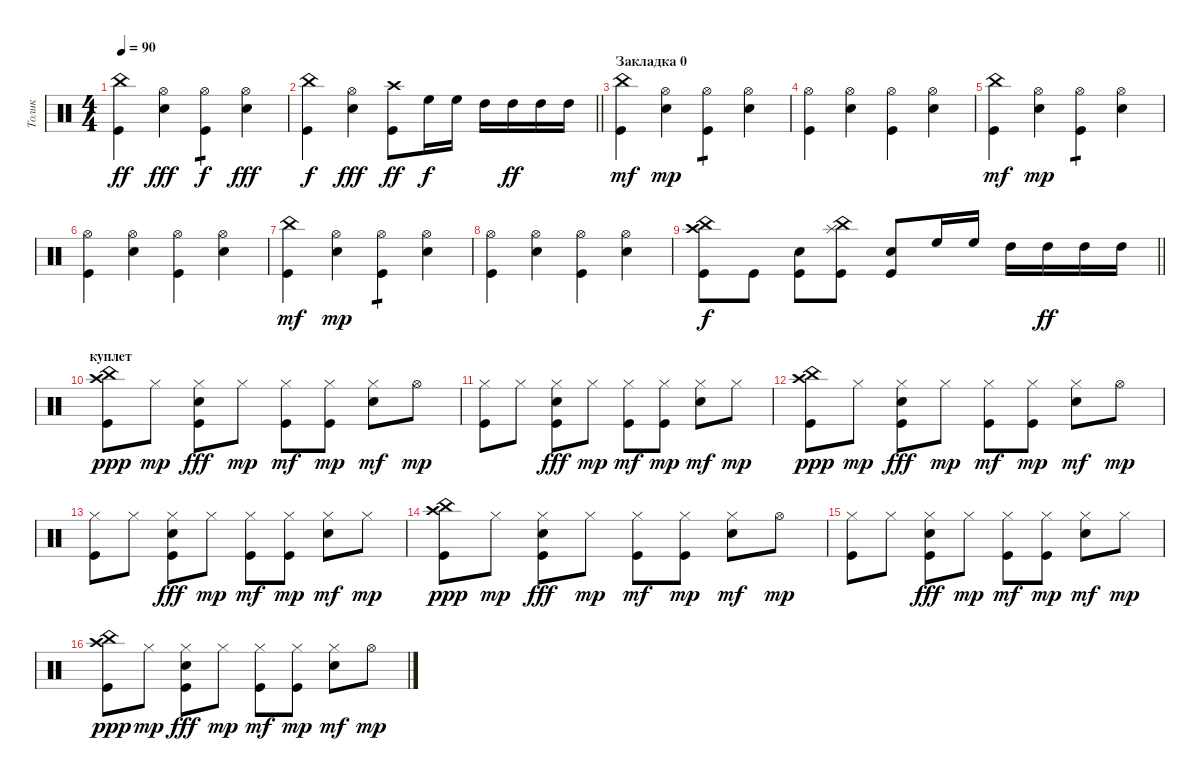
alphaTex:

\track ("Толик" "Толик") {instrument percussion}
\staff {score}
\articulation defaults
\ts (4 4)
\tempo 90
\clef neutral
\ks c
("China (hit)" "Kick (hit)").4{dy ff} ("Snare (hit) 2" "Hi-Hat (open)").4{dy fff} ("Kick (hit)" "Hi-Hat (open)").4{tp 1 dy f} ("Snare (hit) 2" "Hi-Hat (open)").4{dy fff} |
\barLineRight lightlight
("China (hit)" "Kick (hit)").4{dy f} ("Snare (hit) 2" "Hi-Hat (open)").4{dy fff} ("Kick (hit)" "Crash high (hit)").8{dy ff} "High Floor Tom (hit)".16{dy f} "High Floor Tom (hit)".16 "High Tom (hit)".16 "High Tom (hit)".16{dy ff} "High Tom (hit)".16 "High Tom (hit)".16 |
\section ("" "Закладка 0")
("China (hit)" "Kick (hit)").4{dy mf} ("Snare (hit) 2" "Hi-Hat (open)").4{dy mp} ("Kick (hit)" "Hi-Hat (open)").4{tp 1} ("Snare (hit) 2" "Hi-Hat (open)").4 |
("Kick (hit)" "Hi-Hat (open)").4 ("Snare (hit) 2" "Hi-Hat (open)").4 ("Kick (hit)" "Hi-Hat (open)").4 ("Snare (hit) 2" "Hi-Hat (open)").4 |
("China (hit)" "Kick (hit)").4{dy mf} ("Snare (hit) 2" "Hi-Hat (open)").4{dy mp} ("Kick (hit)" "Hi-Hat (open)").4{tp 1} ("Snare (hit) 2" "Hi-Hat (open)").4 |
("Kick (hit)" "Hi-Hat (open)").4 ("Snare (hit) 2" "Hi-Hat (open)").4 ("Kick (hit)" "Hi-Hat (open)").4 ("Snare (hit) 2" "Hi-Hat (open)").4 |
("China (hit)" "Kick (hit)").4{dy mf} ("Snare (hit) 2" "Hi-Hat (open)").4{dy mp} ("Kick (hit)" "Hi-Hat (open)").4{tp 1} ("Snare (hit) 2" "Hi-Hat (open)").4 |
("Kick (hit)" "Hi-Hat (open)").4 ("Snare (hit) 2" "Hi-Hat (open)").4 ("Kick (hit)" "Hi-Hat (open)").4 ("Snare (hit) 2" "Hi-Hat (open)").4 |
\barLineRight lightlight
("Crash high (hit)" "China (hit)" "Kick (hit)").8{dy f} "Kick (hit)".8 ("Kick (hit)" "Snare (hit) 2").8 ("China (hit)" "Splash (hit)" "Kick (hit)").8 ("Snare (hit) 2" "Kick (hit)").8 "High Floor Tom (hit)".16 "High Floor Tom (hit)".16 "High Tom (hit)".16 "High Tom (hit)".16{dy ff} "High Tom (hit)".16 "High Tom (hit)".16 |
\section ("" "куплет")
("China (hit)" "Kick (hit)" "Crash high (hit)").8{dy ppp} "Hi-Hat (closed)".8{dy mp} ("Kick (hit)" "Hi-Hat (closed)" "Snare (hit) 2").8{dy fff} "Hi-Hat (closed)".8{dy mp} ("Kick (hit)" "Hi-Hat (closed)").8{dy mf} ("Kick (hit)" "Hi-Hat (closed)").8{dy mp} ("Snare (hit) 2" "Hi-Hat (closed)").8{dy mf} "Hi-Hat (open)".8{dy mp} |
("Hi-Hat (closed)" "Kick (hit)").8 "Hi-Hat (closed)".8 ("Kick (hit)" "Hi-Hat (closed)" "Snare (hit) 2").8{dy fff} "Hi-Hat (closed)".8{dy mp} ("Kick (hit)" "Hi-Hat (closed)").8{dy mf} ("Kick (hit)" "Hi-Hat (closed)").8{dy mp} ("Snare (hit) 2" "Hi-Hat (closed)").8{dy mf} "Hi-Hat (closed)".8{dy mp} |
("China (hit)" "Kick (hit)" "Crash high (hit)").8{dy ppp} "Hi-Hat (closed)".8{dy mp} ("Kick (hit)" "Hi-Hat (closed)" "Snare (hit) 2").8{dy fff} "Hi-Hat (closed)".8{dy mp} ("Kick (hit)" "Hi-Hat (closed)").8{dy mf} ("Kick (hit)" "Hi-Hat (closed)").8{dy mp} ("Snare (hit) 2" "Hi-Hat (closed)").8{dy mf} "Hi-Hat (open)".8{dy mp} |
("Hi-Hat (closed)" "Kick (hit)").8 "Hi-Hat (closed)".8 ("Kick (hit)" "Hi-Hat (closed)" "Snare (hit) 2").8{dy fff} "Hi-Hat (closed)".8{dy mp} ("Kick (hit)" "Hi-Hat (closed)").8{dy mf} ("Kick (hit)" "Hi-Hat (closed)").8{dy mp} ("Snare (hit) 2" "Hi-Hat (closed)").8{dy mf} "Hi-Hat (closed)".8{dy mp} |
("China (hit)" "Kick (hit)" "Crash high (hit)").8{dy ppp} "Hi-Hat (closed)".8{dy mp} ("Kick (hit)" "Hi-Hat (closed)" "Snare (hit) 2").8{dy fff} "Hi-Hat (closed)".8{dy mp} ("Kick (hit)" "Hi-Hat (closed)").8{dy mf} ("Kick (hit)" "Hi-Hat (closed)").8{dy mp} ("Snare (hit) 2" "Hi-Hat (closed)").8{dy mf} "Hi-Hat (open)".8{dy mp} |
("Hi-Hat (closed)" "Kick (hit)").8 "Hi-Hat (closed)".8 ("Kick (hit)" "Hi-Hat (closed)" "Snare (hit) 2").8{dy fff} "Hi-Hat (closed)".8{dy mp} ("Kick (hit)" "Hi-Hat (closed)").8{dy mf} ("Kick (hit)" "Hi-Hat (closed)").8{dy mp} ("Snare (hit) 2" "Hi-Hat (closed)").8{dy mf} "Hi-Hat (closed)".8{dy mp} |
("China (hit)" "Kick (hit)" "Crash high (hit)").8{dy ppp} "Hi-Hat (closed)".8{dy mp} ("Kick (hit)" "Hi-Hat (closed)" "Snare (hit) 2").8{dy fff} "Hi-Hat (closed)".8{dy mp} ("Kick (hit)" "Hi-Hat (closed)").8{dy mf} ("Kick (hit)" "Hi-Hat (closed)").8{dy mp} ("Snare (hit) 2" "Hi-Hat (closed)").8{dy mf} "Hi-Hat (open)".8{dy mp}
